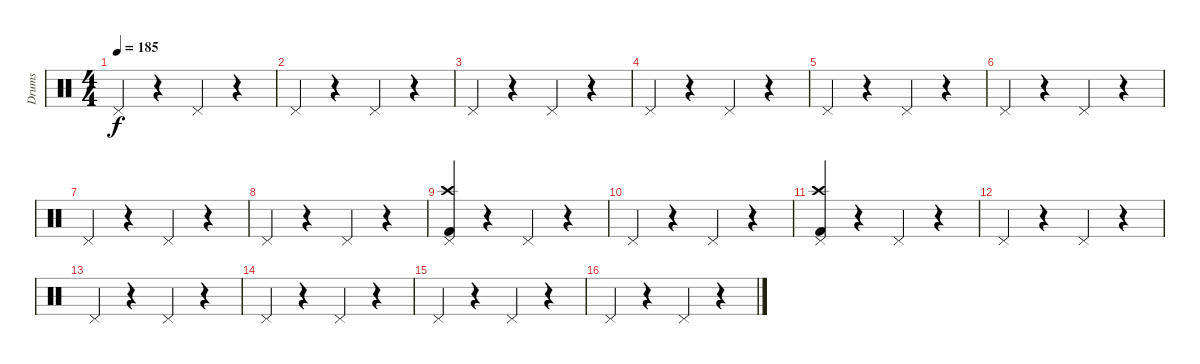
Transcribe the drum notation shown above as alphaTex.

\track ("Drums" "Drums") {instrument percussion}
\staff {score}
\articulation defaults
\ts (4 4)
\tempo 185
\clef neutral
\ks c "Pedal Hi-Hat (hit)".4{dy f}
r.4 "Pedal Hi-Hat (hit)".4 r.4 |
"Pedal Hi-Hat (hit)".4 r.4 "Pedal Hi-Hat (hit)".4 r.4 |
"Pedal Hi-Hat (hit)".4 r.4 "Pedal Hi-Hat (hit)".4 r.4 |
"Pedal Hi-Hat (hit)".4 r.4 "Pedal Hi-Hat (hit)".4 r.4 |
"Pedal Hi-Hat (hit)".4 r.4 "Pedal Hi-Hat (hit)".4 r.4 |
"Pedal Hi-Hat (hit)".4 r.4 "Pedal Hi-Hat (hit)".4 r.4 |
"Pedal Hi-Hat (hit)".4 r.4 "Pedal Hi-Hat (hit)".4 r.4 |
"Pedal Hi-Hat (hit)".4 r.4 "Pedal Hi-Hat (hit)".4 r.4 |
("Pedal Hi-Hat (hit)" "Crash high (hit)" "Kick (hit) 2").4 r.4 "Pedal Hi-Hat (hit)".4 r.4 |
"Pedal Hi-Hat (hit)".4 r.4 "Pedal Hi-Hat (hit)".4 r.4 |
("Pedal Hi-Hat (hit)" "Crash high (hit)" "Kick (hit) 2").4 r.4 "Pedal Hi-Hat (hit)".4 r.4 |
"Pedal Hi-Hat (hit)".4 r.4 "Pedal Hi-Hat (hit)".4 r.4 |
"Pedal Hi-Hat (hit)".4 r.4 "Pedal Hi-Hat (hit)".4 r.4 |
"Pedal Hi-Hat (hit)".4 r.4 "Pedal Hi-Hat (hit)".4 r.4 |
"Pedal Hi-Hat (hit)".4 r.4 "Pedal Hi-Hat (hit)".4 r.4 |
"Pedal Hi-Hat (hit)".4 r.4 "Pedal Hi-Hat (hit)".4 r.4
